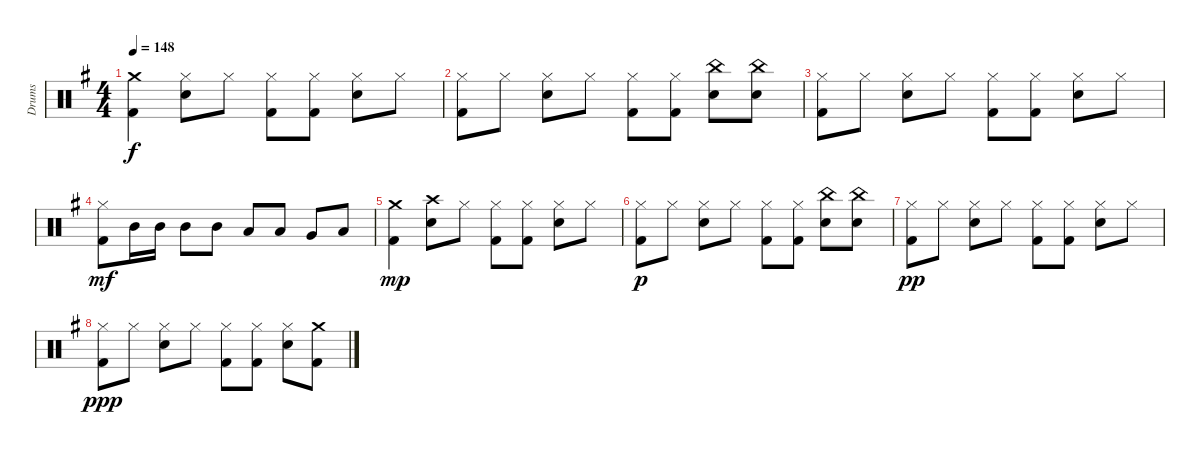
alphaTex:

\track ("Drums" "Drums") {instrument percussion}
\staff {score}
\articulation defaults
\ts (4 4)
\tempo 148
\clef neutral
\ks g
("Crash medium (hit)" "Kick (hit) 2").4{dy f} ("Hi-Hat (closed)" "Electric Snare (hit)").8 "Hi-Hat (closed)".8 ("Hi-Hat (closed)" "Kick (hit) 2").8 ("Hi-Hat (closed)" "Kick (hit) 2").8 ("Hi-Hat (closed)" "Electric Snare (hit)").8 "Hi-Hat (closed)".8 |
("Hi-Hat (closed)" "Kick (hit) 2").8 "Hi-Hat (closed)".8 ("Hi-Hat (closed)" "Electric Snare (hit)").8 "Hi-Hat (closed)".8 ("Hi-Hat (closed)" "Kick (hit) 2").8 ("Hi-Hat (closed)" "Kick (hit) 2").8 ("China (hit)" "Electric Snare (hit)").8 ("China (hit)" "Electric Snare (hit)").8 |
("Hi-Hat (closed)" "Kick (hit) 2").8 "Hi-Hat (closed)".8 ("Hi-Hat (closed)" "Electric Snare (hit)").8 "Hi-Hat (closed)".8 ("Hi-Hat (closed)" "Kick (hit) 2").8 ("Hi-Hat (closed)" "Kick (hit) 2").8 ("Hi-Hat (closed)" "Electric Snare (hit)").8 "Hi-Hat (closed)".8 |
("Hi-Hat (closed)" "Kick (hit) 2").8{dy mf} "Mid Tom (hit)".16 "Mid Tom (hit)".16 "Mid Tom (hit)".8 "Mid Tom (hit)".8 "Low Tom (hit)".8 "Low Tom (hit)".8 "Very Low Tom (hit)".8 "Low Floor Tom (hit)".8 |
("Crash medium (hit)" "Kick (hit) 2").4{dy mp} ("Crash high (hit)" "Electric Snare (hit)").8 "Hi-Hat (closed)".8 ("Hi-Hat (closed)" "Kick (hit) 2").8 ("Hi-Hat (closed)" "Kick (hit) 2").8 ("Hi-Hat (closed)" "Electric Snare (hit)").8 "Hi-Hat (closed)".8 |
("Hi-Hat (closed)" "Kick (hit) 2").8{dy p} "Hi-Hat (closed)".8 ("Hi-Hat (closed)" "Electric Snare (hit)").8 "Hi-Hat (closed)".8 ("Hi-Hat (closed)" "Kick (hit) 2").8 ("Hi-Hat (closed)" "Kick (hit) 2").8 ("China (hit)" "Electric Snare (hit)").8 ("China (hit)" "Electric Snare (hit)").8 |
("Hi-Hat (closed)" "Kick (hit) 2").8{dy pp} "Hi-Hat (closed)".8 ("Hi-Hat (closed)" "Electric Snare (hit)").8 "Hi-Hat (closed)".8 ("Hi-Hat (closed)" "Kick (hit) 2").8 ("Hi-Hat (closed)" "Kick (hit) 2").8 ("Hi-Hat (closed)" "Electric Snare (hit)").8 "Hi-Hat (closed)".8 |
("Hi-Hat (closed)" "Kick (hit) 2").8{dy ppp} "Hi-Hat (closed)".8 ("Hi-Hat (closed)" "Electric Snare (hit)").8 "Hi-Hat (closed)".8 ("Hi-Hat (closed)" "Kick (hit) 2").8 ("Hi-Hat (closed)" "Kick (hit) 2").8 ("Hi-Hat (closed)" "Electric Snare (hit)").8 ("Crash medium (hit)" "Kick (hit) 2").8
